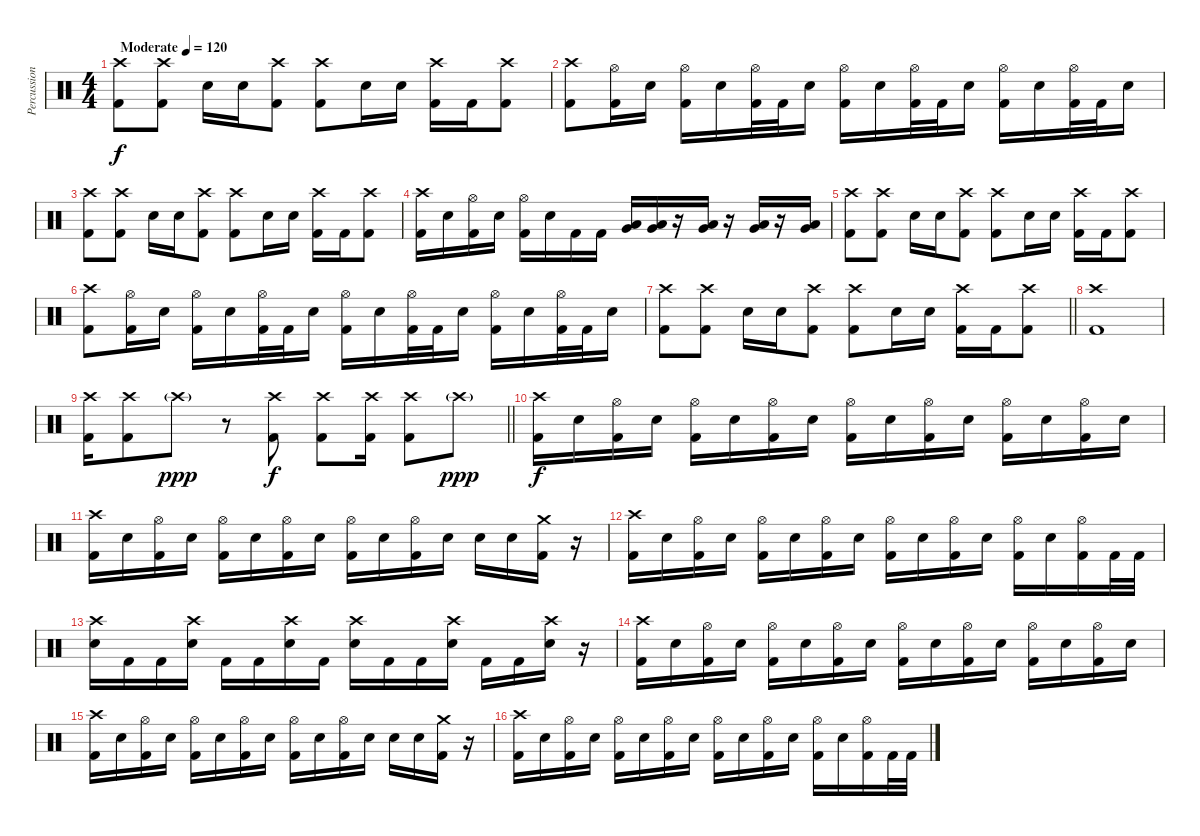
\track ("Percussion" "Percussion") {instrument percussion}
\staff {score}
\articulation defaults
\ts (4 4)
\tempo (120 "Moderate")
\clef neutral
\ks c
("Crash high (hit)" "Kick (hit) 2").8{dy f} ("Crash high (hit)" "Kick (hit) 2").8 "Snare (hit) 2".16 "Snare (hit) 2".16 ("Crash high (hit)" "Kick (hit) 2").8 ("Crash high (hit)" "Kick (hit) 2").8 "Snare (hit) 2".16 "Snare (hit) 2".16 ("Crash high (hit)" "Kick (hit) 2").16 "Kick (hit) 2".16 ("Crash high (hit)" "Kick (hit) 2").8 |
("Crash high (hit)" "Kick (hit) 2").8 ("Hi-Hat (open)" "Kick (hit) 2").16 "Snare (hit) 2".16 ("Hi-Hat (open)" "Kick (hit) 2").16 "Snare (hit) 2".16 ("Hi-Hat (open)" "Kick (hit) 2").32 "Kick (hit) 2".32 "Snare (hit) 2".16 ("Hi-Hat (open)" "Kick (hit) 2").16 "Snare (hit) 2".16 ("Hi-Hat (open)" "Kick (hit) 2").32 "Kick (hit) 2".32 "Snare (hit) 2".16 ("Hi-Hat (open)" "Kick (hit) 2").16 "Snare (hit) 2".16 ("Hi-Hat (open)" "Kick (hit) 2").32 "Kick (hit) 2".32 "Snare (hit) 2".16 |
("Crash high (hit)" "Kick (hit) 2").8 ("Crash high (hit)" "Kick (hit) 2").8 "Snare (hit) 2".16 "Snare (hit) 2".16 ("Crash high (hit)" "Kick (hit) 2").8 ("Crash high (hit)" "Kick (hit) 2").8 "Snare (hit) 2".16 "Snare (hit) 2".16 ("Crash high (hit)" "Kick (hit) 2").16 "Kick (hit) 2".16 ("Crash high (hit)" "Kick (hit) 2").8 |
("Crash high (hit)" "Kick (hit) 2").16 "Snare (hit) 2".16 ("Hi-Hat (open)" "Kick (hit) 2").16 "Snare (hit) 2".16 ("Hi-Hat (open)" "Kick (hit) 2").16 "Snare (hit) 2".16 "Kick (hit) 2".16 "Kick (hit) 2".16 ("Low Tom (hit)" "Very Low Tom (hit)").16 ("Low Tom (hit)" "Very Low Tom (hit)").16 r.16 ("Low Tom (hit)" "Very Low Tom (hit)").16 r.16 ("Low Tom (hit)" "Very Low Tom (hit)").16 r.16 ("Low Tom (hit)" "Very Low Tom (hit)").16 |
("Crash high (hit)" "Kick (hit) 2").8 ("Crash high (hit)" "Kick (hit) 2").8 "Snare (hit) 2".16 "Snare (hit) 2".16 ("Crash high (hit)" "Kick (hit) 2").8 ("Crash high (hit)" "Kick (hit) 2").8 "Snare (hit) 2".16 "Snare (hit) 2".16 ("Crash high (hit)" "Kick (hit) 2").16 "Kick (hit) 2".16 ("Crash high (hit)" "Kick (hit) 2").8 |
("Crash high (hit)" "Kick (hit) 2").8 ("Hi-Hat (open)" "Kick (hit) 2").16 "Snare (hit) 2".16 ("Hi-Hat (open)" "Kick (hit) 2").16 "Snare (hit) 2".16 ("Hi-Hat (open)" "Kick (hit) 2").32 "Kick (hit) 2".32 "Snare (hit) 2".16 ("Hi-Hat (open)" "Kick (hit) 2").16 "Snare (hit) 2".16 ("Hi-Hat (open)" "Kick (hit) 2").32 "Kick (hit) 2".32 "Snare (hit) 2".16 ("Hi-Hat (open)" "Kick (hit) 2").16 "Snare (hit) 2".16 ("Hi-Hat (open)" "Kick (hit) 2").32 "Kick (hit) 2".32 "Snare (hit) 2".16 |
\barLineRight lightlight
("Crash high (hit)" "Kick (hit) 2").8 ("Crash high (hit)" "Kick (hit) 2").8 "Snare (hit) 2".16 "Snare (hit) 2".16 ("Crash high (hit)" "Kick (hit) 2").8 ("Crash high (hit)" "Kick (hit) 2").8 "Snare (hit) 2".16 "Snare (hit) 2".16 ("Crash high (hit)" "Kick (hit) 2").16 "Kick (hit) 2".16 ("Crash high (hit)" "Kick (hit) 2").8 |
\section ("" "")
("Crash high (hit)" "Kick (hit) 2").1 |
\barLineRight lightlight
("Crash high (hit)" "Kick (hit) 2").16 ("Crash high (hit)" "Kick (hit) 2").8 "Crash high (hit)"{g}.8{dy ppp} r.8 ("Crash high (hit)" "Kick (hit) 2").8{dy f} ("Crash high (hit)" "Kick (hit) 2").8 ("Crash high (hit)" "Kick (hit) 2").16 ("Crash high (hit)" "Kick (hit) 2").8 "Crash high (hit)"{g}.8{dy ppp} |
\section ("" "")
("Crash high (hit)" "Kick (hit) 2").16{dy f} "Snare (hit) 2".16 ("Hi-Hat (open)" "Kick (hit) 2").16 "Snare (hit) 2".16 ("Hi-Hat (open)" "Kick (hit) 2").16 "Snare (hit) 2".16 ("Hi-Hat (open)" "Kick (hit) 2").16 "Snare (hit) 2".16 ("Hi-Hat (open)" "Kick (hit) 2").16 "Snare (hit) 2".16 ("Hi-Hat (open)" "Kick (hit) 2").16 "Snare (hit) 2".16 ("Hi-Hat (open)" "Kick (hit) 2").16 "Snare (hit) 2".16 ("Hi-Hat (open)" "Kick (hit) 2").16 "Snare (hit) 2".16 |
("Crash high (hit)" "Kick (hit) 2").16 "Snare (hit) 2".16 ("Hi-Hat (open)" "Kick (hit) 2").16 "Snare (hit) 2".16 ("Hi-Hat (open)" "Kick (hit) 2").16 "Snare (hit) 2".16 ("Hi-Hat (open)" "Kick (hit) 2").16 "Snare (hit) 2".16 ("Hi-Hat (open)" "Kick (hit) 2").16 "Snare (hit) 2".16 ("Hi-Hat (open)" "Kick (hit) 2").16 "Snare (hit) 2".16 "Snare (hit) 2".16 "Snare (hit) 2".16 ("Crash medium (hit)" "Kick (hit) 2").16 r.16 |
("Crash high (hit)" "Kick (hit) 2").16 "Snare (hit) 2".16 ("Hi-Hat (open)" "Kick (hit) 2").16 "Snare (hit) 2".16 ("Hi-Hat (open)" "Kick (hit) 2").16 "Snare (hit) 2".16 ("Hi-Hat (open)" "Kick (hit) 2").16 "Snare (hit) 2".16 ("Hi-Hat (open)" "Kick (hit) 2").16 "Snare (hit) 2".16 ("Hi-Hat (open)" "Kick (hit) 2").16 "Snare (hit) 2".16 ("Hi-Hat (open)" "Kick (hit) 2").16 "Snare (hit) 2".16 ("Hi-Hat (open)" "Kick (hit) 2").16 "Kick (hit) 2".32 "Kick (hit) 2".32 |
("Crash high (hit)" "Snare (hit) 2").16 "Kick (hit) 2".16 "Kick (hit) 2".16 ("Crash high (hit)" "Snare (hit) 2").16 "Kick (hit) 2".16 "Kick (hit) 2".16 ("Crash high (hit)" "Snare (hit) 2").16 "Kick (hit) 2".16 ("Crash high (hit)" "Snare (hit) 2").16 "Kick (hit) 2".16 "Kick (hit) 2".16 ("Crash high (hit)" "Snare (hit) 2").16 "Kick (hit) 2".16 "Kick (hit) 2".16 ("Crash high (hit)" "Snare (hit) 2").16 r.16 |
("Crash high (hit)" "Kick (hit) 2").16 "Snare (hit) 2".16 ("Hi-Hat (open)" "Kick (hit) 2").16 "Snare (hit) 2".16 ("Hi-Hat (open)" "Kick (hit) 2").16 "Snare (hit) 2".16 ("Hi-Hat (open)" "Kick (hit) 2").16 "Snare (hit) 2".16 ("Hi-Hat (open)" "Kick (hit) 2").16 "Snare (hit) 2".16 ("Hi-Hat (open)" "Kick (hit) 2").16 "Snare (hit) 2".16 ("Hi-Hat (open)" "Kick (hit) 2").16 "Snare (hit) 2".16 ("Hi-Hat (open)" "Kick (hit) 2").16 "Snare (hit) 2".16 |
("Crash high (hit)" "Kick (hit) 2").16 "Snare (hit) 2".16 ("Hi-Hat (open)" "Kick (hit) 2").16 "Snare (hit) 2".16 ("Hi-Hat (open)" "Kick (hit) 2").16 "Snare (hit) 2".16 ("Hi-Hat (open)" "Kick (hit) 2").16 "Snare (hit) 2".16 ("Hi-Hat (open)" "Kick (hit) 2").16 "Snare (hit) 2".16 ("Hi-Hat (open)" "Kick (hit) 2").16 "Snare (hit) 2".16 "Snare (hit) 2".16 "Snare (hit) 2".16 ("Crash medium (hit)" "Kick (hit) 2").16 r.16 |
("Crash high (hit)" "Kick (hit) 2").16 "Snare (hit) 2".16 ("Hi-Hat (open)" "Kick (hit) 2").16 "Snare (hit) 2".16 ("Hi-Hat (open)" "Kick (hit) 2").16 "Snare (hit) 2".16 ("Hi-Hat (open)" "Kick (hit) 2").16 "Snare (hit) 2".16 ("Hi-Hat (open)" "Kick (hit) 2").16 "Snare (hit) 2".16 ("Hi-Hat (open)" "Kick (hit) 2").16 "Snare (hit) 2".16 ("Hi-Hat (open)" "Kick (hit) 2").16 "Snare (hit) 2".16 ("Hi-Hat (open)" "Kick (hit) 2").16 "Kick (hit) 2".32 "Kick (hit) 2".32
